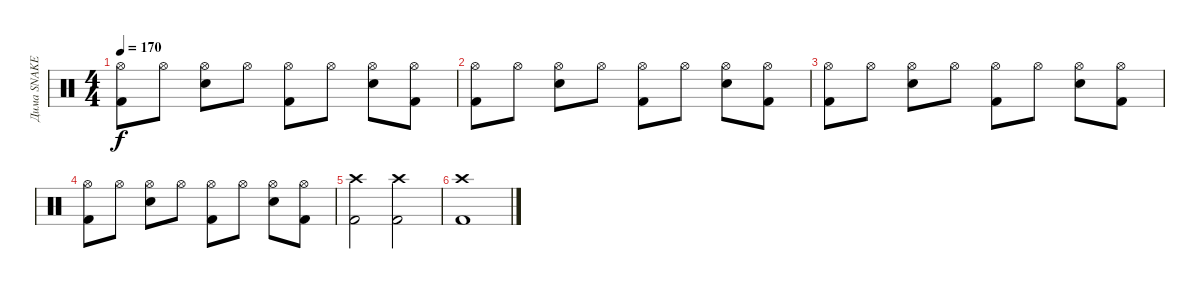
\track ("Дима SNAKE" "Дима SNAKE") {instrument percussion}
\staff {score}
\articulation defaults
\ts (4 4)
\tempo 170
\clef neutral
\ks c
("Hi-Hat (open)" "Kick (hit) 2").8{dy f} "Hi-Hat (open)".8 ("Hi-Hat (open)" "Snare (hit) 2").8 "Hi-Hat (open)".8 ("Hi-Hat (open)" "Kick (hit) 2").8 "Hi-Hat (open)".8 ("Hi-Hat (open)" "Snare (hit) 2").8 ("Hi-Hat (open)" "Kick (hit) 2").8 |
("Hi-Hat (open)" "Kick (hit) 2").8 "Hi-Hat (open)".8 ("Hi-Hat (open)" "Snare (hit) 2").8 "Hi-Hat (open)".8 ("Hi-Hat (open)" "Kick (hit) 2").8 "Hi-Hat (open)".8 ("Hi-Hat (open)" "Snare (hit) 2").8 ("Hi-Hat (open)" "Kick (hit) 2").8 |
("Hi-Hat (open)" "Kick (hit) 2").8 "Hi-Hat (open)".8 ("Hi-Hat (open)" "Snare (hit) 2").8 "Hi-Hat (open)".8 ("Hi-Hat (open)" "Kick (hit) 2").8 "Hi-Hat (open)".8 ("Hi-Hat (open)" "Snare (hit) 2").8 ("Hi-Hat (open)" "Kick (hit) 2").8 |
("Hi-Hat (open)" "Kick (hit) 2").8 "Hi-Hat (open)".8 ("Hi-Hat (open)" "Snare (hit) 2").8 "Hi-Hat (open)".8 ("Hi-Hat (open)" "Kick (hit) 2").8 "Hi-Hat (open)".8 ("Hi-Hat (open)" "Snare (hit) 2").8 ("Hi-Hat (open)" "Kick (hit) 2").8 |
("Crash high (hit)" "Kick (hit) 2").2 ("Crash high (hit)" "Kick (hit) 2").2 |
("Crash high (hit)" "Kick (hit) 2").1
